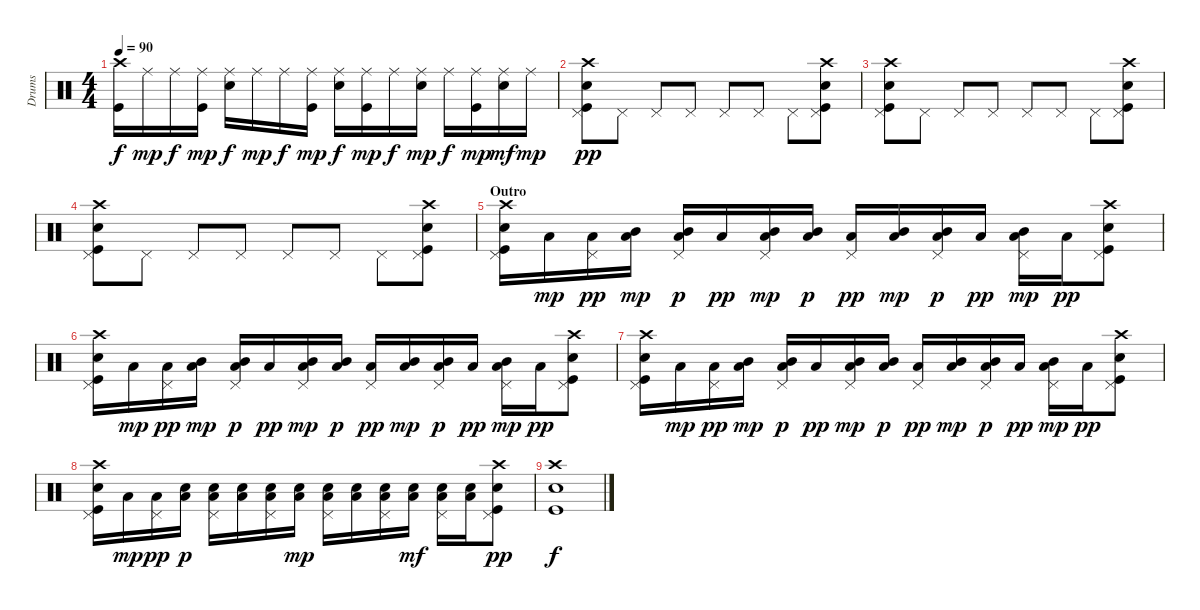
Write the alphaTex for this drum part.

\track ("Drums" "Drums") {instrument percussion}
\staff {score}
\articulation defaults
\ts (4 4)
\tempo 90
\clef neutral
\ks c
("Crash high (hit)" "Kick (hit)").16{dy f} "Ride (middle)".16{dy mp} "Ride (middle)".16{dy f} ("Ride (middle)" "Kick (hit)").16{dy mp} ("Ride (middle)" "Snare (hit) 2").16{dy f} "Ride (middle)".16{dy mp} "Ride (middle)".16{dy f} ("Ride (middle)" "Kick (hit)").16{dy mp} ("Ride (middle)" "Snare (hit) 2").16{dy f} ("Ride (middle)" "Kick (hit)").16{dy mp} "Ride (middle)".16{dy f} ("Ride (middle)" "Snare (hit) 2").16{dy mp} "Ride (middle)".16{dy f} ("Ride (middle)" "Kick (hit)").16{dy mp} ("Ride (middle)" "Snare (hit) 2").16{dy mf} "Ride (middle)".16{dy mp} |
("Crash high (hit)" "Pedal Hi-Hat (hit)" "Snare (hit) 2" "Kick (hit)").8{dy pp} "Pedal Hi-Hat (hit)".8 "Pedal Hi-Hat (hit)".8 "Pedal Hi-Hat (hit)".8 "Pedal Hi-Hat (hit)".8 "Pedal Hi-Hat (hit)".8 "Pedal Hi-Hat (hit)".8 ("Crash high (hit)" "Pedal Hi-Hat (hit)" "Snare (hit) 2" "Kick (hit)").8 |
("Crash high (hit)" "Pedal Hi-Hat (hit)" "Snare (hit) 2" "Kick (hit)").8 "Pedal Hi-Hat (hit)".8 "Pedal Hi-Hat (hit)".8 "Pedal Hi-Hat (hit)".8 "Pedal Hi-Hat (hit)".8 "Pedal Hi-Hat (hit)".8 "Pedal Hi-Hat (hit)".8 ("Crash high (hit)" "Pedal Hi-Hat (hit)" "Snare (hit) 2" "Kick (hit)").8 |
("Crash high (hit)" "Pedal Hi-Hat (hit)" "Snare (hit) 2" "Kick (hit)").8 "Pedal Hi-Hat (hit)".8 "Pedal Hi-Hat (hit)".8 "Pedal Hi-Hat (hit)".8 "Pedal Hi-Hat (hit)".8 "Pedal Hi-Hat (hit)".8 "Pedal Hi-Hat (hit)".8 ("Crash high (hit)" "Pedal Hi-Hat (hit)" "Snare (hit) 2" "Kick (hit)").8 |
\section ("" "Outro")
("Crash high (hit)" "Pedal Hi-Hat (hit)" "Snare (hit) 2" "Kick (hit)").16 "Low Tom (hit)".16{dy mp} ("Pedal Hi-Hat (hit)" "Low Tom (hit)").16{dy pp} ("Low Tom (hit)" "Mid Tom (hit)").16{dy mp} ("Pedal Hi-Hat (hit)" "Low Tom (hit)" "Mid Tom (hit)").16{dy p} "Low Tom (hit)".16{dy pp} ("Pedal Hi-Hat (hit)" "Low Tom (hit)" "Mid Tom (hit)").16{dy mp} ("Low Tom (hit)" "Mid Tom (hit)").16{dy p} ("Pedal Hi-Hat (hit)" "Low Tom (hit)").16{dy pp} ("Low Tom (hit)" "Mid Tom (hit)").16{dy mp} ("Pedal Hi-Hat (hit)" "Low Tom (hit)" "Mid Tom (hit)").16{dy p} "Low Tom (hit)".16{dy pp} ("Pedal Hi-Hat (hit)" "Low Tom (hit)" "Mid Tom (hit)").16{dy mp} "Low Tom (hit)".16{dy pp} ("Crash high (hit)" "Pedal Hi-Hat (hit)" "Snare (hit) 2" "Kick (hit)").8 |
("Crash high (hit)" "Pedal Hi-Hat (hit)" "Snare (hit) 2" "Kick (hit)").16 "Low Tom (hit)".16{dy mp} ("Pedal Hi-Hat (hit)" "Low Tom (hit)").16{dy pp} ("Low Tom (hit)" "Mid Tom (hit)").16{dy mp} ("Pedal Hi-Hat (hit)" "Low Tom (hit)" "Mid Tom (hit)").16{dy p} "Low Tom (hit)".16{dy pp} ("Pedal Hi-Hat (hit)" "Low Tom (hit)" "Mid Tom (hit)").16{dy mp} ("Low Tom (hit)" "Mid Tom (hit)").16{dy p} ("Pedal Hi-Hat (hit)" "Low Tom (hit)").16{dy pp} ("Low Tom (hit)" "Mid Tom (hit)").16{dy mp} ("Pedal Hi-Hat (hit)" "Low Tom (hit)" "Mid Tom (hit)").16{dy p} "Low Tom (hit)".16{dy pp} ("Pedal Hi-Hat (hit)" "Low Tom (hit)" "Mid Tom (hit)").16{dy mp} "Low Tom (hit)".16{dy pp} ("Crash high (hit)" "Pedal Hi-Hat (hit)" "Snare (hit) 2" "Kick (hit)").8 |
("Crash high (hit)" "Pedal Hi-Hat (hit)" "Snare (hit) 2" "Kick (hit)").16 "Low Tom (hit)".16{dy mp} ("Pedal Hi-Hat (hit)" "Low Tom (hit)").16{dy pp} ("Low Tom (hit)" "Mid Tom (hit)").16{dy mp} ("Pedal Hi-Hat (hit)" "Low Tom (hit)" "Mid Tom (hit)").16{dy p} "Low Tom (hit)".16{dy pp} ("Pedal Hi-Hat (hit)" "Low Tom (hit)" "Mid Tom (hit)").16{dy mp} ("Low Tom (hit)" "Mid Tom (hit)").16{dy p} ("Pedal Hi-Hat (hit)" "Low Tom (hit)").16{dy pp} ("Low Tom (hit)" "Mid Tom (hit)").16{dy mp} ("Pedal Hi-Hat (hit)" "Low Tom (hit)" "Mid Tom (hit)").16{dy p} "Low Tom (hit)".16{dy pp} ("Pedal Hi-Hat (hit)" "Low Tom (hit)" "Mid Tom (hit)").16{dy mp} "Low Tom (hit)".16{dy pp} ("Crash high (hit)" "Pedal Hi-Hat (hit)" "Snare (hit) 2" "Kick (hit)").8 |
("Crash high (hit)" "Pedal Hi-Hat (hit)" "Snare (hit) 2" "Kick (hit)").16 "Low Tom (hit)".16{dy mp} ("Pedal Hi-Hat (hit)" "Low Tom (hit)").16{dy pp} ("Low Tom (hit)" "Snare (hit) 2").16{dy p} ("Pedal Hi-Hat (hit)" "Low Tom (hit)" "Snare (hit) 2").16 ("Low Tom (hit)" "Snare (hit) 2").16 ("Pedal Hi-Hat (hit)" "Low Tom (hit)" "Snare (hit) 2").16 ("Low Tom (hit)" "Snare (hit) 2").16{dy mp} ("Pedal Hi-Hat (hit)" "Low Tom (hit)" "Snare (hit) 2").16 ("Low Tom (hit)" "Snare (hit) 2").16 ("Pedal Hi-Hat (hit)" "Low Tom (hit)" "Snare (hit) 2").16 ("Low Tom (hit)" "Snare (hit) 2").16{dy mf} ("Pedal Hi-Hat (hit)" "Low Tom (hit)" "Snare (hit) 2").16 ("Low Tom (hit)" "Snare (hit) 2").16 ("Crash high (hit)" "Pedal Hi-Hat (hit)" "Snare (hit) 2" "Kick (hit)").8{dy pp} |
("Crash high (hit)" "Snare (hit) 2" "Kick (hit)").1{dy f}
